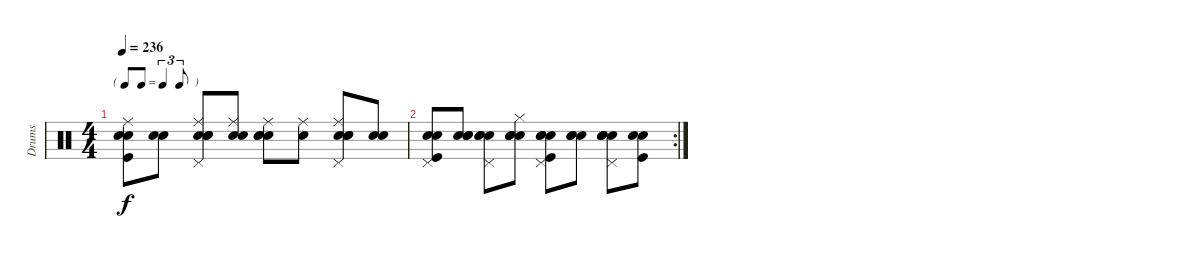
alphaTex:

\track ("Drums" "Drums") {instrument percussion}
\staff {score}
\articulation defaults
\ts (4 4)
\tf triplet8th
\tempo 236
\clef neutral
\ks c
("Snare (hit)" "Kick (hit)" "Electric Snare (hit)" "Ride (middle)").8{dy f} ("Snare (hit)" "Electric Snare (hit)").8 ("Snare (hit)" "Snare (hit) 2" "Electric Snare (hit)" "Ride (middle)" "Pedal Hi-Hat (hit)").8 ("Snare (hit)" "Snare (hit) 2" "Ride (middle)").8 ("Snare (hit)" "Snare (hit) 2" "Electric Snare (hit)" "Ride (middle)").8 ("Snare (hit)" "Ride (middle)").8 ("Snare (hit)" "Snare (hit) 2" "Electric Snare (hit)" "Ride (middle)" "Pedal Hi-Hat (hit)").8 ("Snare (hit)" "Snare (hit) 2").8 |
\rc 2
("Snare (hit)" "Kick (hit)" "Electric Snare (hit)" "Pedal Hi-Hat (hit)").8 ("Snare (hit)" "Electric Snare (hit)" "Hand Clap (hit)").8 ("Snare (hit)" "Snare (hit) 2" "Electric Snare (hit)" "Pedal Hi-Hat (hit)").8 ("Snare (hit)" "Snare (hit) 2" "Hi-Hat (closed)" "Hand Clap (hit)").8 ("Snare (hit)" "Kick (hit)" "Electric Snare (hit)" "Pedal Hi-Hat (hit)" "Hand Clap (hit)").8 ("Snare (hit)" "Electric Snare (hit)" "Hand Clap (hit)").8 ("Snare (hit)" "Snare (hit) 2" "Electric Snare (hit)" "Pedal Hi-Hat (hit)" "Hand Clap (hit)").8 ("Snare (hit)" "Kick (hit)" "Hand Clap (hit)").8
